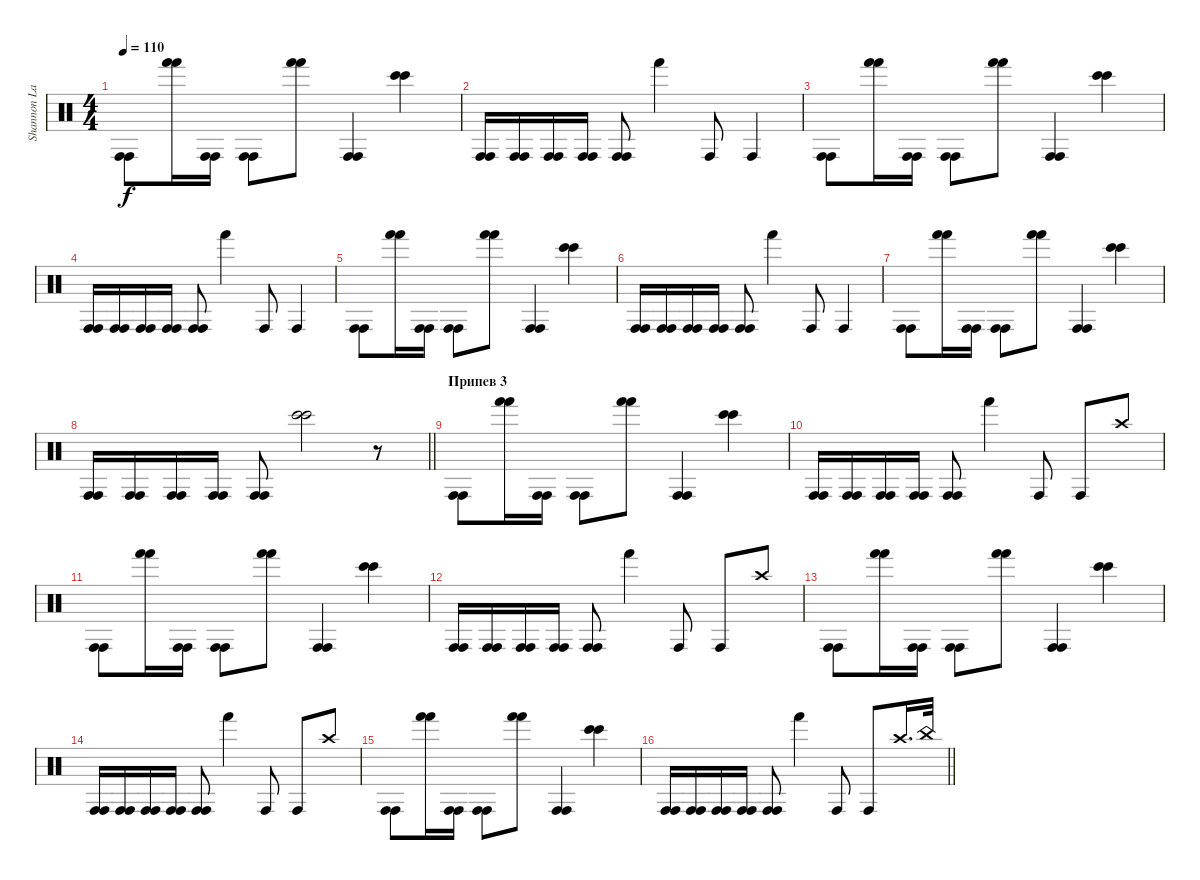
\track ("Shannon Larkin [Percussion 1]" "Shannon La") {instrument percussion}
\staff {score}
\articulation defaults
\ts (4 4)
\tempo 110
\clef neutral
\ks c
("Conga high (hit)" "Conga high (hit)").8{dy f} ("Hand (hit)" "Hand (hit)").16 ("Conga high (hit)" "Conga high (hit)").16 ("Conga high (hit)" "Conga high (hit)").8 ("Hand (hit)" "Hand (hit)").8 ("Conga high (hit)" "Conga high (hit)").4 ("Bongo High (hit)" "Bongo High (hit)").4 |
("Conga high (hit)" "Conga high (hit)").16 ("Conga high (hit)" "Conga high (hit)").16 ("Conga high (hit)" "Conga high (hit)").16 ("Conga high (hit)" "Conga high (hit)").16 ("Conga high (hit)" "Conga high (hit)").8 "Hand (hit)".4 "Conga high (hit)".8 "Conga high (hit)".4 |
("Conga high (hit)" "Conga high (hit)").8 ("Hand (hit)" "Hand (hit)").16 ("Conga high (hit)" "Conga high (hit)").16 ("Conga high (hit)" "Conga high (hit)").8 ("Hand (hit)" "Hand (hit)").8 ("Conga high (hit)" "Conga high (hit)").4 ("Bongo High (hit)" "Bongo High (hit)").4 |
("Conga high (hit)" "Conga high (hit)").16 ("Conga high (hit)" "Conga high (hit)").16 ("Conga high (hit)" "Conga high (hit)").16 ("Conga high (hit)" "Conga high (hit)").16 ("Conga high (hit)" "Conga high (hit)").8 "Hand (hit)".4 "Conga high (hit)".8 "Conga high (hit)".4 |
("Conga high (hit)" "Conga high (hit)").8 ("Hand (hit)" "Hand (hit)").16 ("Conga high (hit)" "Conga high (hit)").16 ("Conga high (hit)" "Conga high (hit)").8 ("Hand (hit)" "Hand (hit)").8 ("Conga high (hit)" "Conga high (hit)").4 ("Bongo High (hit)" "Bongo High (hit)").4 |
("Conga high (hit)" "Conga high (hit)").16 ("Conga high (hit)" "Conga high (hit)").16 ("Conga high (hit)" "Conga high (hit)").16 ("Conga high (hit)" "Conga high (hit)").16 ("Conga high (hit)" "Conga high (hit)").8 "Hand (hit)".4 "Conga high (hit)".8 "Conga high (hit)".4 |
("Conga high (hit)" "Conga high (hit)").8 ("Hand (hit)" "Hand (hit)").16 ("Conga high (hit)" "Conga high (hit)").16 ("Conga high (hit)" "Conga high (hit)").8 ("Hand (hit)" "Hand (hit)").8 ("Conga high (hit)" "Conga high (hit)").4 ("Bongo High (hit)" "Bongo High (hit)").4 |
\barLineRight lightlight
("Conga high (hit)" "Conga high (hit)").16 ("Conga high (hit)" "Conga high (hit)").16 ("Conga high (hit)" "Conga high (hit)").16 ("Conga high (hit)" "Conga high (hit)").16 ("Conga high (hit)" "Conga high (hit)").8 ("Bongo High (hit)" "Bongo High (hit)").2 r.8 |
\section ("" "Припев 3")
("Conga high (hit)" "Conga high (hit)").8 ("Hand (hit)" "Hand (hit)").16 ("Conga high (hit)" "Conga high (hit)").16 ("Conga high (hit)" "Conga high (hit)").8 ("Hand (hit)" "Hand (hit)").8 ("Conga high (hit)" "Conga high (hit)").4 ("Bongo High (hit)" "Bongo High (hit)").4 |
("Conga high (hit)" "Conga high (hit)").16 ("Conga high (hit)" "Conga high (hit)").16 ("Conga high (hit)" "Conga high (hit)").16 ("Conga high (hit)" "Conga high (hit)").16 ("Conga high (hit)" "Conga high (hit)").8 "Hand (hit)".4 "Conga high (hit)".8 "Conga high (hit)".8 "Crash high (hit)".8 |
("Conga high (hit)" "Conga high (hit)").8 ("Hand (hit)" "Hand (hit)").16 ("Conga high (hit)" "Conga high (hit)").16 ("Conga high (hit)" "Conga high (hit)").8 ("Hand (hit)" "Hand (hit)").8 ("Conga high (hit)" "Conga high (hit)").4 ("Bongo High (hit)" "Bongo High (hit)").4 |
("Conga high (hit)" "Conga high (hit)").16 ("Conga high (hit)" "Conga high (hit)").16 ("Conga high (hit)" "Conga high (hit)").16 ("Conga high (hit)" "Conga high (hit)").16 ("Conga high (hit)" "Conga high (hit)").8 "Hand (hit)".4 "Conga high (hit)".8 "Conga high (hit)".8 "Crash high (hit)".8 |
("Conga high (hit)" "Conga high (hit)").8 ("Hand (hit)" "Hand (hit)").16 ("Conga high (hit)" "Conga high (hit)").16 ("Conga high (hit)" "Conga high (hit)").8 ("Hand (hit)" "Hand (hit)").8 ("Conga high (hit)" "Conga high (hit)").4 ("Bongo High (hit)" "Bongo High (hit)").4 |
("Conga high (hit)" "Conga high (hit)").16 ("Conga high (hit)" "Conga high (hit)").16 ("Conga high (hit)" "Conga high (hit)").16 ("Conga high (hit)" "Conga high (hit)").16 ("Conga high (hit)" "Conga high (hit)").8 "Hand (hit)".4 "Conga high (hit)".8 "Conga high (hit)".8 "Crash high (hit)".8 |
("Conga high (hit)" "Conga high (hit)").8 ("Hand (hit)" "Hand (hit)").16 ("Conga high (hit)" "Conga high (hit)").16 ("Conga high (hit)" "Conga high (hit)").8 ("Hand (hit)" "Hand (hit)").8 ("Conga high (hit)" "Conga high (hit)").4 ("Bongo High (hit)" "Bongo High (hit)").4 |
\barLineRight lightlight
("Conga high (hit)" "Conga high (hit)").16 ("Conga high (hit)" "Conga high (hit)").16 ("Conga high (hit)" "Conga high (hit)").16 ("Conga high (hit)" "Conga high (hit)").16 ("Conga high (hit)" "Conga high (hit)").8 "Hand (hit)".4 "Conga high (hit)".8 "Conga high (hit)".8 "Crash high (hit)".16{d} "China (hit)".32
